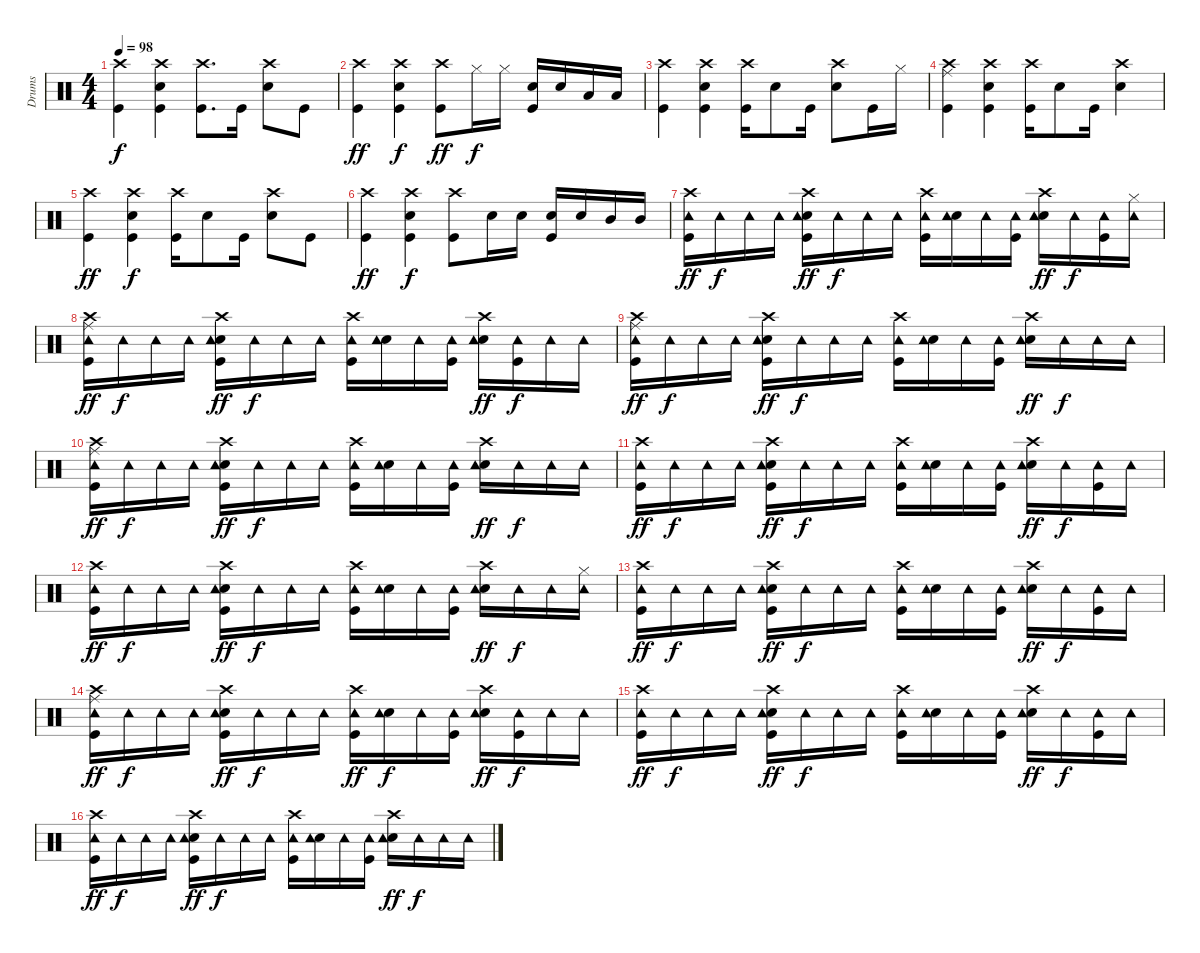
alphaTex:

\track ("Drums" "Drums") {instrument percussion}
\staff {score}
\articulation defaults
\ts (4 4)
\tempo 98
\clef neutral
\ks c
("Crash high (hit)" "Kick (hit)").4{dy f} ("Crash high (hit)" "Electric Snare (hit)" "Kick (hit)").4 ("Crash high (hit)" "Kick (hit)").8{d} "Kick (hit)".16 ("Crash high (hit)" "Electric Snare (hit)").8 "Kick (hit)".8 |
("Crash high (hit)" "Kick (hit)").4{dy ff} ("Crash high (hit)" "Electric Snare (hit)" "Kick (hit)").4{dy f} ("Crash high (hit)" "Kick (hit)").8{dy ff} "Hi-Hat (closed)".16{dy f} "Hi-Hat (closed)".16 ("Electric Snare (hit)" "Kick (hit)").16 "Electric Snare (hit)".16 "Low Tom (hit)".16 "Low Tom (hit)".16 |
("Crash high (hit)" "Kick (hit)").4 ("Crash high (hit)" "Electric Snare (hit)" "Kick (hit)").4 ("Crash high (hit)" "Kick (hit)").16 "Electric Snare (hit)".8 "Kick (hit)".16 ("Crash high (hit)" "Electric Snare (hit)").8 "Kick (hit)".16 "Hi-Hat (closed)".16 |
("Crash high (hit)" "Kick (hit)" "Ride (middle)").4 ("Crash high (hit)" "Electric Snare (hit)" "Kick (hit)").4 ("Crash high (hit)" "Kick (hit)").16 "Electric Snare (hit)".8 "Kick (hit)".16 ("Crash high (hit)" "Electric Snare (hit)").4 |
("Crash high (hit)" "Kick (hit)").4{dy ff} ("Crash high (hit)" "Electric Snare (hit)" "Kick (hit)").4{dy f} ("Crash high (hit)" "Kick (hit)").16 "Electric Snare (hit)".8 "Kick (hit)".16 ("Crash high (hit)" "Electric Snare (hit)").8 "Kick (hit)".8 |
("Crash high (hit)" "Kick (hit)").4{dy ff} ("Crash high (hit)" "Electric Snare (hit)" "Kick (hit)").4{dy f} ("Crash high (hit)" "Kick (hit)").8 "Electric Snare (hit)".16 "Electric Snare (hit)".16 ("Electric Snare (hit)" "Kick (hit)").16 "Electric Snare (hit)".16 "Mid Tom (hit)".16 "Mid Tom (hit)".16 |
("Crash high (hit)" "Kick (hit)" "Tambourine (hit)").16{dy ff} "Tambourine (hit)".16{dy f} "Tambourine (hit)".16 "Tambourine (hit)".16 ("Crash high (hit)" "Kick (hit)" "Electric Snare (hit)" "Tambourine (hit)").16{dy ff} "Tambourine (hit)".16{dy f} "Tambourine (hit)".16 "Tambourine (hit)".16 ("Crash high (hit)" "Kick (hit)" "Tambourine (hit)").16 ("Electric Snare (hit)" "Tambourine (hit)").16 "Tambourine (hit)".16 ("Kick (hit)" "Tambourine (hit)").16 ("Crash high (hit)" "Electric Snare (hit)" "Tambourine (hit)").16{dy ff} "Tambourine (hit)".16{dy f} ("Kick (hit)" "Tambourine (hit)").16 ("Hi-Hat (closed)" "Tambourine (hit)").16 |
("Crash high (hit)" "Kick (hit)" "Ride (middle)" "Tambourine (hit)").16{dy ff} "Tambourine (hit)".16{dy f} "Tambourine (hit)".16 "Tambourine (hit)".16 ("Crash high (hit)" "Kick (hit)" "Electric Snare (hit)" "Tambourine (hit)").16{dy ff} "Tambourine (hit)".16{dy f} "Tambourine (hit)".16 "Tambourine (hit)".16 ("Crash high (hit)" "Kick (hit)" "Tambourine (hit)").16 ("Electric Snare (hit)" "Tambourine (hit)").16 "Tambourine (hit)".16 ("Kick (hit)" "Tambourine (hit)").16 ("Crash high (hit)" "Electric Snare (hit)" "Tambourine (hit)").16{dy ff} ("Kick (hit)" "Tambourine (hit)").16{dy f} "Tambourine (hit)".16 "Tambourine (hit)".16 |
("Crash high (hit)" "Kick (hit)" "Ride (middle)" "Tambourine (hit)").16{dy ff} "Tambourine (hit)".16{dy f} "Tambourine (hit)".16 "Tambourine (hit)".16 ("Crash high (hit)" "Kick (hit)" "Electric Snare (hit)" "Tambourine (hit)").16{dy ff} "Tambourine (hit)".16{dy f} "Tambourine (hit)".16 "Tambourine (hit)".16 ("Crash high (hit)" "Kick (hit)" "Tambourine (hit)").16 ("Electric Snare (hit)" "Tambourine (hit)").16 "Tambourine (hit)".16 ("Kick (hit)" "Tambourine (hit)").16 ("Crash high (hit)" "Electric Snare (hit)" "Tambourine (hit)").16{dy ff} "Tambourine (hit)".16{dy f} "Tambourine (hit)".16 "Tambourine (hit)".16 |
("Crash high (hit)" "Kick (hit)" "Ride (middle)" "Tambourine (hit)").16{dy ff} "Tambourine (hit)".16{dy f} "Tambourine (hit)".16 "Tambourine (hit)".16 ("Crash high (hit)" "Kick (hit)" "Electric Snare (hit)" "Tambourine (hit)").16{dy ff} "Tambourine (hit)".16{dy f} "Tambourine (hit)".16 "Tambourine (hit)".16 ("Crash high (hit)" "Kick (hit)" "Tambourine (hit)").16 ("Electric Snare (hit)" "Tambourine (hit)").16 "Tambourine (hit)".16 ("Kick (hit)" "Tambourine (hit)").16 ("Crash high (hit)" "Electric Snare (hit)" "Tambourine (hit)").16{dy ff} "Tambourine (hit)".16{dy f} "Tambourine (hit)".16 "Tambourine (hit)".16 |
("Crash high (hit)" "Kick (hit)" "Tambourine (hit)").16{dy ff} "Tambourine (hit)".16{dy f} "Tambourine (hit)".16 "Tambourine (hit)".16 ("Crash high (hit)" "Kick (hit)" "Electric Snare (hit)" "Tambourine (hit)").16{dy ff} "Tambourine (hit)".16{dy f} "Tambourine (hit)".16 "Tambourine (hit)".16 ("Crash high (hit)" "Kick (hit)" "Tambourine (hit)").16 ("Electric Snare (hit)" "Tambourine (hit)").16 "Tambourine (hit)".16 ("Kick (hit)" "Tambourine (hit)").16 ("Crash high (hit)" "Electric Snare (hit)" "Tambourine (hit)").16{dy ff} "Tambourine (hit)".16{dy f} ("Kick (hit)" "Tambourine (hit)").16 "Tambourine (hit)".16 |
("Crash high (hit)" "Kick (hit)" "Tambourine (hit)").16{dy ff} "Tambourine (hit)".16{dy f} "Tambourine (hit)".16 "Tambourine (hit)".16 ("Crash high (hit)" "Kick (hit)" "Electric Snare (hit)" "Tambourine (hit)").16{dy ff} "Tambourine (hit)".16{dy f} "Tambourine (hit)".16 "Tambourine (hit)".16 ("Crash high (hit)" "Kick (hit)" "Tambourine (hit)").16 ("Electric Snare (hit)" "Tambourine (hit)").16 "Tambourine (hit)".16 ("Kick (hit)" "Tambourine (hit)").16 ("Crash high (hit)" "Electric Snare (hit)" "Tambourine (hit)").16{dy ff} "Tambourine (hit)".16{dy f} "Tambourine (hit)".16 ("Hi-Hat (closed)" "Tambourine (hit)").16 |
("Crash high (hit)" "Kick (hit)" "Tambourine (hit)").16{dy ff} "Tambourine (hit)".16{dy f} "Tambourine (hit)".16 "Tambourine (hit)".16 ("Crash high (hit)" "Kick (hit)" "Electric Snare (hit)" "Tambourine (hit)").16{dy ff} "Tambourine (hit)".16{dy f} "Tambourine (hit)".16 "Tambourine (hit)".16 ("Crash high (hit)" "Kick (hit)" "Tambourine (hit)").16 ("Electric Snare (hit)" "Tambourine (hit)").16 "Tambourine (hit)".16 ("Kick (hit)" "Tambourine (hit)").16 ("Crash high (hit)" "Electric Snare (hit)" "Tambourine (hit)").16{dy ff} "Tambourine (hit)".16{dy f} ("Kick (hit)" "Tambourine (hit)").16 "Tambourine (hit)".16 |
("Crash high (hit)" "Kick (hit)" "Ride (middle)" "Tambourine (hit)").16{dy ff} "Tambourine (hit)".16{dy f} "Tambourine (hit)".16 "Tambourine (hit)".16 ("Crash high (hit)" "Kick (hit)" "Electric Snare (hit)" "Tambourine (hit)").16{dy ff} "Tambourine (hit)".16{dy f} "Tambourine (hit)".16 "Tambourine (hit)".16 ("Crash high (hit)" "Kick (hit)" "Tambourine (hit)").16{dy ff} ("Electric Snare (hit)" "Tambourine (hit)").16{dy f} "Tambourine (hit)".16 ("Kick (hit)" "Tambourine (hit)").16 ("Crash high (hit)" "Electric Snare (hit)" "Tambourine (hit)").16{dy ff} ("Kick (hit)" "Tambourine (hit)").16{dy f} "Tambourine (hit)".16 "Tambourine (hit)".16 |
("Crash high (hit)" "Kick (hit)" "Tambourine (hit)").16{dy ff} "Tambourine (hit)".16{dy f} "Tambourine (hit)".16 "Tambourine (hit)".16 ("Crash high (hit)" "Kick (hit)" "Electric Snare (hit)" "Tambourine (hit)").16{dy ff} "Tambourine (hit)".16{dy f} "Tambourine (hit)".16 "Tambourine (hit)".16 ("Crash high (hit)" "Kick (hit)" "Tambourine (hit)").16 ("Electric Snare (hit)" "Tambourine (hit)").16 "Tambourine (hit)".16 ("Kick (hit)" "Tambourine (hit)").16 ("Crash high (hit)" "Electric Snare (hit)" "Tambourine (hit)").16{dy ff} "Tambourine (hit)".16{dy f} ("Kick (hit)" "Tambourine (hit)").16 "Tambourine (hit)".16 |
("Crash high (hit)" "Kick (hit)" "Tambourine (hit)").16{dy ff} "Tambourine (hit)".16{dy f} "Tambourine (hit)".16 "Tambourine (hit)".16 ("Crash high (hit)" "Kick (hit)" "Electric Snare (hit)" "Tambourine (hit)").16{dy ff} "Tambourine (hit)".16{dy f} "Tambourine (hit)".16 "Tambourine (hit)".16 ("Crash high (hit)" "Kick (hit)" "Tambourine (hit)").16 ("Electric Snare (hit)" "Tambourine (hit)").16 "Tambourine (hit)".16 ("Kick (hit)" "Tambourine (hit)").16 ("Crash high (hit)" "Electric Snare (hit)" "Tambourine (hit)").16{dy ff} "Tambourine (hit)".16{dy f} "Tambourine (hit)".16 "Tambourine (hit)".16
